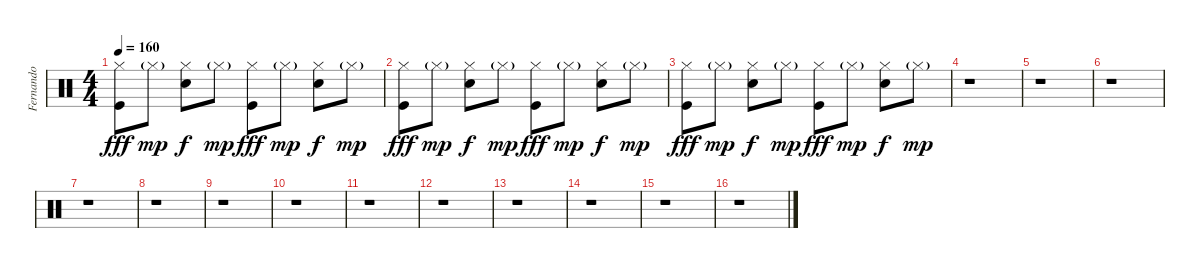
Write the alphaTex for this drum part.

\track ("Fernando" "Fernando") {instrument percussion}
\staff {score}
\articulation defaults
\ts (4 4)
\tempo 160
\clef neutral
\ks c
("Hi-Hat (closed)" "Kick (hit)").8{dy fff} "Hi-Hat (closed)"{g}.8{dy mp} ("Hi-Hat (closed)" "Snare (hit) 2").8{dy f} "Hi-Hat (closed)"{g}.8{dy mp} ("Hi-Hat (closed)" "Kick (hit)").8{dy fff} "Hi-Hat (closed)"{g}.8{dy mp} ("Hi-Hat (closed)" "Snare (hit) 2").8{dy f} "Hi-Hat (closed)"{g}.8{dy mp} |
("Hi-Hat (closed)" "Kick (hit)").8{dy fff} "Hi-Hat (closed)"{g}.8{dy mp} ("Hi-Hat (closed)" "Snare (hit) 2").8{dy f} "Hi-Hat (closed)"{g}.8{dy mp} ("Hi-Hat (closed)" "Kick (hit)").8{dy fff} "Hi-Hat (closed)"{g}.8{dy mp} ("Hi-Hat (closed)" "Snare (hit) 2").8{dy f} "Hi-Hat (closed)"{g}.8{dy mp} |
("Hi-Hat (closed)" "Kick (hit)").8{dy fff} "Hi-Hat (closed)"{g}.8{dy mp} ("Hi-Hat (closed)" "Snare (hit) 2").8{dy f} "Hi-Hat (closed)"{g}.8{dy mp} ("Hi-Hat (closed)" "Kick (hit)").8{dy fff} "Hi-Hat (closed)"{g}.8{dy mp} ("Hi-Hat (closed)" "Snare (hit) 2").8{dy f} "Hi-Hat (closed)"{g}.8{dy mp} |
r.1 |
r.1 |
r.1 |
r.1 |
r.1 |
r.1 |
r.1 |
r.1 |
r.1 |
r.1 |
r.1 |
r.1 |
r.1
